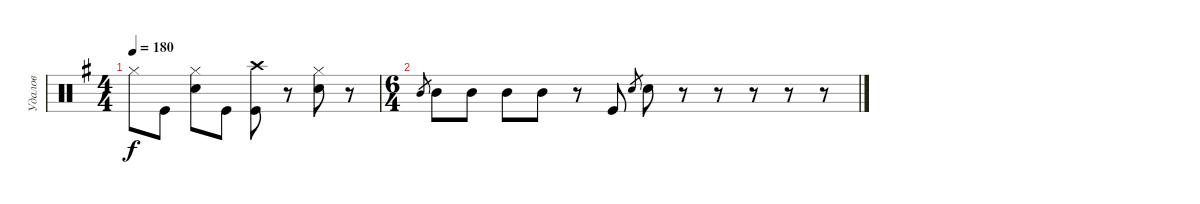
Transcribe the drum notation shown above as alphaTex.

\track ("Удалов" "Удалов") {instrument percussion}
\staff {score}
\articulation defaults
\ts (4 4)
\tempo 180
\clef neutral
\ks g "Hi-Hat (closed)".8{dy f} "Kick (hit)".8
("Hi-Hat (closed)" "Electric Snare (hit)").8 "Kick (hit)".8 ("Crash high (hit)" "Kick (hit)").8 r.8 ("Hi-Hat (closed)" "Electric Snare (hit)").8 r.8 |
\ts (6 4)
"Mid Tom (hit)".8{gr} "Mid Tom (hit)".8 "Mid Tom (hit)".8 "Mid Tom (hit)".8 "Mid Tom (hit)".8 r.8 "Kick (hit)".8 "Electric Snare (hit)".8{gr} "Electric Snare (hit)".8 r.8 r.8 r.8 r.8 r.8
